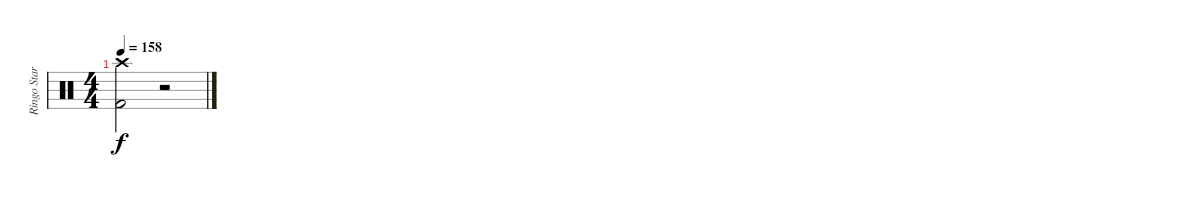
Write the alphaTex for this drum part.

\track ("Ringo Star" "Ringo Star") {instrument percussion}
\staff {score}
\articulation defaults
\ts (4 4)
\tempo 158
\clef neutral
\ks c
("Crash high (hit)" "Kick (hit) 2").2{dy f} r.2
